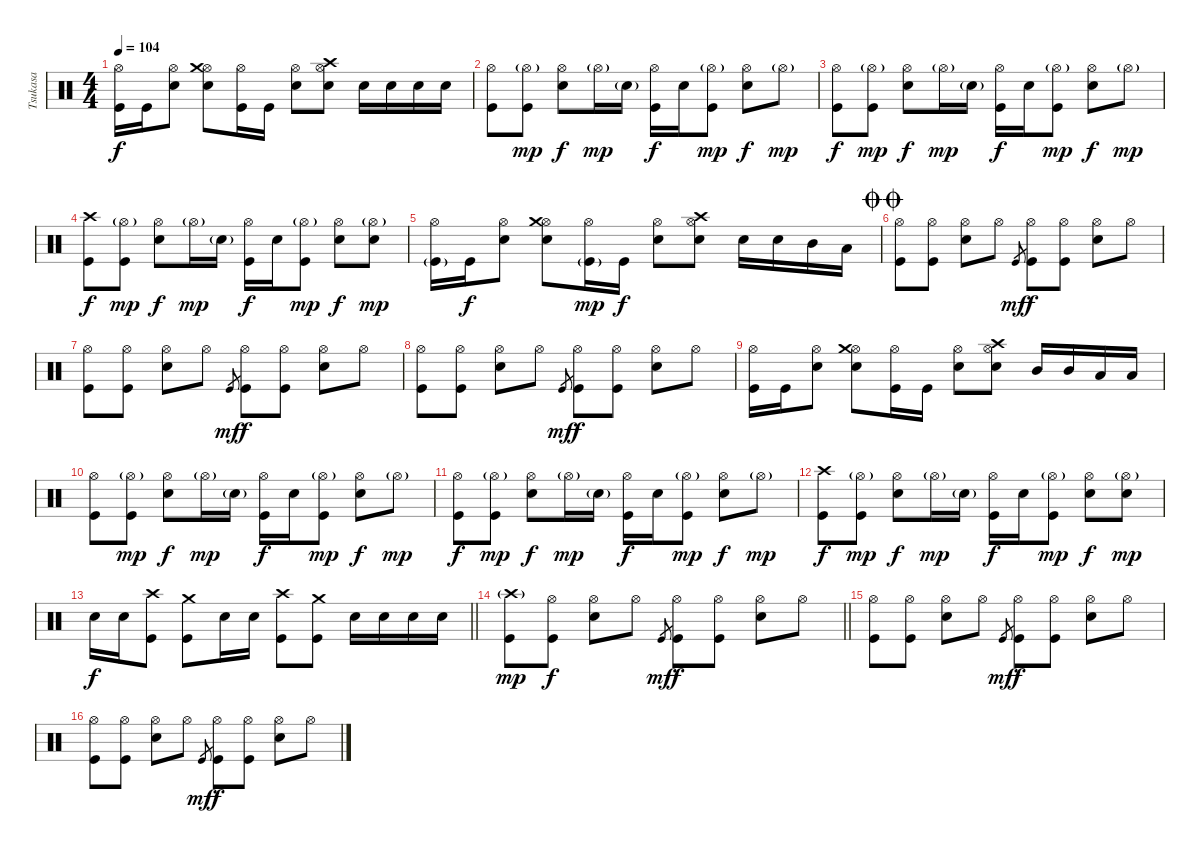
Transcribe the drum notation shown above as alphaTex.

\track ("Tsukasa" "Tsukasa") {instrument percussion}
\staff {score}
\articulation defaults
\ts (4 4)
\tempo 104
\clef neutral
\ks c
("Hi-Hat (open)" "Kick (hit)").16{dy f} "Kick (hit)".16 ("Hi-Hat (open)" "Snare (hit) 2").8 ("Hi-Hat (open)" "Crash medium (hit)" "Snare (hit) 2").8 ("Hi-Hat (open)" "Kick (hit)").16 "Kick (hit)".16 ("Hi-Hat (open)" "Snare (hit) 2").8 ("Hi-Hat (open)" "Crash high (hit)" "Snare (hit) 2").8 "Snare (hit) 2".16 "Snare (hit) 2".16 "Snare (hit) 2".16 "Snare (hit) 2".16 |
("Hi-Hat (open)" "Kick (hit)").8 ("Hi-Hat (open)"{g} "Kick (hit)").8{dy mp} ("Hi-Hat (open)" "Snare (hit) 2").8{dy f} "Hi-Hat (open)"{g}.16{dy mp} "Snare (hit) 2"{g}.16 ("Hi-Hat (open)" "Kick (hit)").16{dy f} "Snare (hit) 2".16 ("Hi-Hat (open)"{g} "Kick (hit)").8{dy mp} ("Hi-Hat (open)" "Snare (hit) 2").8{dy f} "Hi-Hat (open)"{g}.8{dy mp} |
("Hi-Hat (open)" "Kick (hit)").8{dy f} ("Hi-Hat (open)"{g} "Kick (hit)").8{dy mp} ("Hi-Hat (open)" "Snare (hit) 2").8{dy f} "Hi-Hat (open)"{g}.16{dy mp} "Snare (hit) 2"{g}.16 ("Hi-Hat (open)" "Kick (hit)").16{dy f} "Snare (hit) 2".16 ("Hi-Hat (open)"{g} "Kick (hit)").8{dy mp} ("Hi-Hat (open)" "Snare (hit) 2").8{dy f} "Hi-Hat (open)"{g}.8{dy mp} |
("Crash high (hit)" "Kick (hit)").8{dy f} ("Hi-Hat (open)"{g} "Kick (hit)").8{dy mp} ("Hi-Hat (open)" "Snare (hit) 2").8{dy f} "Hi-Hat (open)"{g}.16{dy mp} "Snare (hit) 2"{g}.16 ("Hi-Hat (open)" "Kick (hit)").16{dy f} "Snare (hit) 2".16 ("Hi-Hat (open)"{g} "Kick (hit)").8{dy mp} ("Hi-Hat (open)" "Snare (hit) 2").8{dy f} ("Hi-Hat (open)"{g} "Snare (hit) 2").8{dy mp} |
("Hi-Hat (open)" "Kick (hit)"{g}).16 "Kick (hit)".16{dy f} ("Hi-Hat (open)" "Snare (hit) 2").8 ("Hi-Hat (open)" "Crash medium (hit)" "Snare (hit) 2").8 ("Hi-Hat (open)" "Kick (hit)"{g}).16{dy mp} "Kick (hit)".16{dy f} ("Hi-Hat (open)" "Snare (hit) 2").8 ("Hi-Hat (open)" "Crash high (hit)" "Snare (hit) 2").8 "Snare (hit) 2".16 "Snare (hit) 2".16 "Mid Tom (hit)".16 "Low Tom (hit)".16 |
\jump doublecoda
("Hi-Hat (open)" "Kick (hit)").8 ("Hi-Hat (open)" "Kick (hit)").8 ("Hi-Hat (open)" "Snare (hit) 2").8 "Hi-Hat (open)".8 "Kick (hit)".8{gr dy mf} ("Hi-Hat (open)" "Kick (hit)").8{dy f} ("Hi-Hat (open)" "Kick (hit)").8 ("Hi-Hat (open)" "Snare (hit) 2").8 "Hi-Hat (open)".8 |
("Hi-Hat (open)" "Kick (hit)").8 ("Hi-Hat (open)" "Kick (hit)").8 ("Hi-Hat (open)" "Snare (hit) 2").8 "Hi-Hat (open)".8 "Kick (hit)".8{gr dy mf} ("Hi-Hat (open)" "Kick (hit)").8{dy f} ("Hi-Hat (open)" "Kick (hit)").8 ("Hi-Hat (open)" "Snare (hit) 2").8 "Hi-Hat (open)".8 |
("Hi-Hat (open)" "Kick (hit)").8 ("Hi-Hat (open)" "Kick (hit)").8 ("Hi-Hat (open)" "Snare (hit) 2").8 "Hi-Hat (open)".8 "Kick (hit)".8{gr dy mf} ("Hi-Hat (open)" "Kick (hit)").8{dy f} ("Hi-Hat (open)" "Kick (hit)").8 ("Hi-Hat (open)" "Snare (hit) 2").8 "Hi-Hat (open)".8 |
("Hi-Hat (open)" "Kick (hit)").16 "Kick (hit)".16 ("Hi-Hat (open)" "Snare (hit) 2").8 ("Hi-Hat (open)" "Crash medium (hit)" "Snare (hit) 2").8 ("Hi-Hat (open)" "Kick (hit)").16 "Kick (hit)".16 ("Hi-Hat (open)" "Snare (hit) 2").8 ("Hi-Hat (open)" "Crash high (hit)" "Snare (hit) 2").8 "Mid Tom (hit)".16 "Mid Tom (hit)".16 "Low Tom (hit)".16 "Low Tom (hit)".16 |
("Hi-Hat (open)" "Kick (hit)").8 ("Hi-Hat (open)"{g} "Kick (hit)").8{dy mp} ("Hi-Hat (open)" "Snare (hit) 2").8{dy f} "Hi-Hat (open)"{g}.16{dy mp} "Snare (hit) 2"{g}.16 ("Hi-Hat (open)" "Kick (hit)").16{dy f} "Snare (hit) 2".16 ("Hi-Hat (open)"{g} "Kick (hit)").8{dy mp} ("Hi-Hat (open)" "Snare (hit) 2").8{dy f} "Hi-Hat (open)"{g}.8{dy mp} |
("Hi-Hat (open)" "Kick (hit)").8{dy f} ("Hi-Hat (open)"{g} "Kick (hit)").8{dy mp} ("Hi-Hat (open)" "Snare (hit) 2").8{dy f} "Hi-Hat (open)"{g}.16{dy mp} "Snare (hit) 2"{g}.16 ("Hi-Hat (open)" "Kick (hit)").16{dy f} "Snare (hit) 2".16 ("Hi-Hat (open)"{g} "Kick (hit)").8{dy mp} ("Hi-Hat (open)" "Snare (hit) 2").8{dy f} "Hi-Hat (open)"{g}.8{dy mp} |
("Crash high (hit)" "Kick (hit)").8{dy f} ("Hi-Hat (open)"{g} "Kick (hit)").8{dy mp} ("Hi-Hat (open)" "Snare (hit) 2").8{dy f} "Hi-Hat (open)"{g}.16{dy mp} "Snare (hit) 2"{g}.16 ("Hi-Hat (open)" "Kick (hit)").16{dy f} "Snare (hit) 2".16 ("Hi-Hat (open)"{g} "Kick (hit)").8{dy mp} ("Hi-Hat (open)" "Snare (hit) 2").8{dy f} ("Hi-Hat (open)"{g} "Snare (hit) 2").8{dy mp} |
\barLineRight lightlight "Snare (hit) 2".16{dy f} "Snare (hit) 2".16
("Crash high (hit)" "Kick (hit)").8 ("Crash medium (hit)" "Kick (hit)").8 "Snare (hit) 2".16 "Snare (hit) 2".16 ("Crash high (hit)" "Kick (hit)").8 ("Crash medium (hit)" "Kick (hit)").8 "Snare (hit) 2".16 "Snare (hit) 2".16 "Snare (hit) 2".16 "Snare (hit) 2".16 |
\barLineRight lightlight
("Crash high (hit)"{g} "Kick (hit)").8{dy mp} ("Hi-Hat (open)" "Kick (hit)").8{dy f} ("Hi-Hat (open)" "Snare (hit) 2").8 "Hi-Hat (open)".8 "Kick (hit)".8{gr dy mf} ("Hi-Hat (open)" "Kick (hit)").8{dy f} ("Hi-Hat (open)" "Kick (hit)").8 ("Hi-Hat (open)" "Snare (hit) 2").8 "Hi-Hat (open)".8 |
\ks aminor
("Hi-Hat (open)" "Kick (hit)").8 ("Hi-Hat (open)" "Kick (hit)").8 ("Hi-Hat (open)" "Snare (hit) 2").8 "Hi-Hat (open)".8 "Kick (hit)".8{gr dy mf} ("Hi-Hat (open)" "Kick (hit)").8{dy f} ("Hi-Hat (open)" "Kick (hit)").8 ("Hi-Hat (open)" "Snare (hit) 2").8 "Hi-Hat (open)".8 |
("Hi-Hat (open)" "Kick (hit)").8 ("Hi-Hat (open)" "Kick (hit)").8 ("Hi-Hat (open)" "Snare (hit) 2").8 "Hi-Hat (open)".8 "Kick (hit)".8{gr dy mf} ("Hi-Hat (open)" "Kick (hit)").8{dy f} ("Hi-Hat (open)" "Kick (hit)").8 ("Hi-Hat (open)" "Snare (hit) 2").8 "Hi-Hat (open)".8
